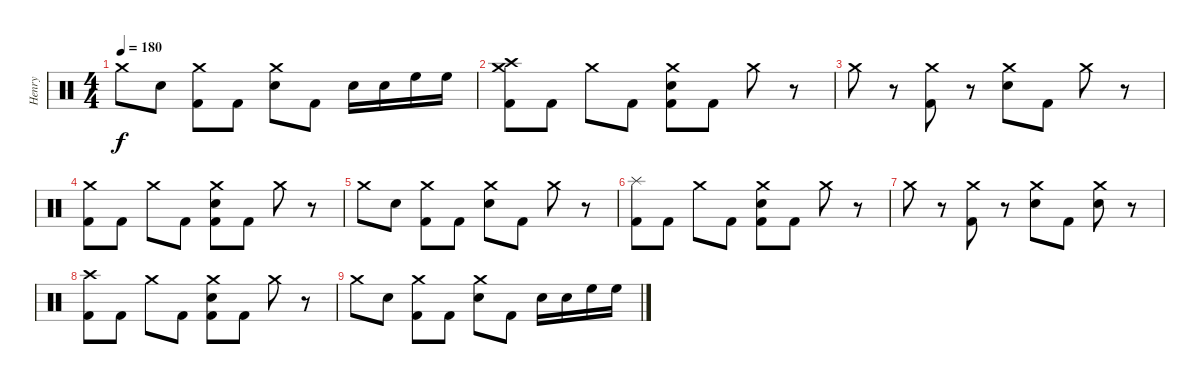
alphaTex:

\track ("Henry" "Henry") {instrument percussion}
\staff {score}
\articulation defaults
\ts (4 4)
\tempo 180
\clef neutral
\ks c "Crash medium (hit)".8{dy f} "Snare (hit) 2".8
("Crash medium (hit)" "Kick (hit) 2").8 "Kick (hit) 2".8 ("Crash medium (hit)" "Snare (hit) 2").8 "Kick (hit) 2".8 "Snare (hit) 2".16 "Snare (hit) 2".16 "High Floor Tom (hit)".16 "High Floor Tom (hit)".16 |
("Crash high (hit)" "Crash medium (hit)" "Kick (hit) 2").8 "Kick (hit) 2".8 "Crash medium (hit)".8 "Kick (hit) 2".8 ("Crash medium (hit)" "Snare (hit) 2" "Kick (hit) 2").8 "Kick (hit) 2".8 "Crash medium (hit)".8 r.8 |
"Crash medium (hit)".8 r.8 ("Crash medium (hit)" "Kick (hit) 2").8 r.8 ("Crash medium (hit)" "Snare (hit) 2").8 "Kick (hit) 2".8 "Crash medium (hit)".8 r.8 |
("Crash medium (hit)" "Kick (hit) 2").8 "Kick (hit) 2".8 "Crash medium (hit)".8 "Kick (hit) 2".8 ("Crash medium (hit)" "Snare (hit) 2" "Kick (hit) 2").8 "Kick (hit) 2".8 "Crash medium (hit)".8 r.8 |
"Crash medium (hit)".8 "Snare (hit) 2".8 ("Crash medium (hit)" "Kick (hit) 2").8 "Kick (hit) 2".8 ("Crash medium (hit)" "Snare (hit) 2").8 "Kick (hit) 2".8 "Crash medium (hit)".8 r.8 |
("Splash (hit)" "Kick (hit) 2").8 "Kick (hit) 2".8 "Crash medium (hit)".8 "Kick (hit) 2".8 ("Crash medium (hit)" "Snare (hit) 2" "Kick (hit) 2").8 "Kick (hit) 2".8 "Crash medium (hit)".8 r.8 |
"Crash medium (hit)".8 r.8 ("Crash medium (hit)" "Kick (hit) 2").8 r.8 ("Crash medium (hit)" "Snare (hit) 2").8 "Kick (hit) 2".8 ("Crash medium (hit)" "Snare (hit) 2").8 r.8 |
("Crash high (hit)" "Kick (hit) 2").8 "Kick (hit) 2".8 "Crash medium (hit)".8 "Kick (hit) 2".8 ("Crash medium (hit)" "Snare (hit) 2" "Kick (hit) 2").8 "Kick (hit) 2".8 "Crash medium (hit)".8 r.8 |
"Crash medium (hit)".8 "Snare (hit) 2".8 ("Crash medium (hit)" "Kick (hit) 2").8 "Kick (hit) 2".8 ("Crash medium (hit)" "Snare (hit) 2").8 "Kick (hit) 2".8 "Snare (hit) 2".16 "Snare (hit) 2".16 "High Floor Tom (hit)".16 "High Floor Tom (hit)".16
